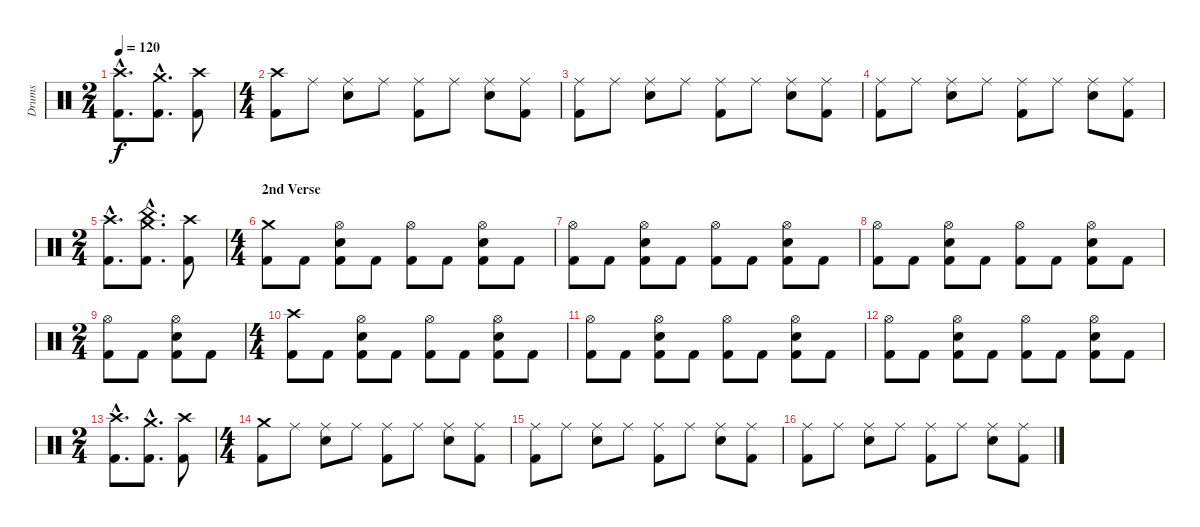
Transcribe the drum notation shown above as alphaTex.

\track ("Drums" "Drums") {instrument percussion}
\staff {score}
\articulation defaults
\ts (2 4)
\tempo 120
\clef neutral
\ks c
("Crash high (hit)"{hac} "Kick (hit) 2"{hac}).8{d dy f} ("Crash medium (hit)"{hac} "Kick (hit) 2"{hac}).8{d} ("Crash high (hit)" "Kick (hit) 2").8 |
\ts (4 4)
("Crash high (hit)" "Kick (hit) 2").8 "Ride (middle)".8 ("Ride (middle)" "Snare (hit) 2").8 "Ride (middle)".8 ("Ride (middle)" "Kick (hit) 2").8 "Ride (middle)".8 ("Ride (middle)" "Snare (hit) 2").8 ("Ride (middle)" "Kick (hit) 2").8 |
("Ride (middle)" "Kick (hit) 2").8 "Ride (middle)".8 ("Ride (middle)" "Snare (hit) 2").8 "Ride (middle)".8 ("Ride (middle)" "Kick (hit) 2").8 "Ride (middle)".8 ("Ride (middle)" "Snare (hit) 2").8 ("Ride (middle)" "Kick (hit) 2").8 |
("Ride (middle)" "Kick (hit) 2").8 "Ride (middle)".8 ("Ride (middle)" "Snare (hit) 2").8 "Ride (middle)".8 ("Ride (middle)" "Kick (hit) 2").8 "Ride (middle)".8 ("Ride (middle)" "Snare (hit) 2").8 ("Ride (middle)" "Kick (hit) 2").8 |
\ts (2 4)
("Crash high (hit)"{hac} "Kick (hit) 2"{hac}).8{d} ("Crash medium (hit)"{hac} "China (hit)"{hac} "Kick (hit) 2"{hac}).8{d} ("Crash high (hit)" "Kick (hit) 2").8 |
\ts (4 4)
\section ("" "2nd Verse")
("Crash medium (hit)" "Kick (hit) 2").8 "Kick (hit) 2".8 ("Hi-Hat (open)" "Snare (hit) 2" "Kick (hit) 2").8 "Kick (hit) 2".8 ("Hi-Hat (open)" "Kick (hit) 2").8 "Kick (hit) 2".8 ("Hi-Hat (open)" "Snare (hit) 2" "Kick (hit) 2").8 "Kick (hit) 2".8 |
("Hi-Hat (open)" "Kick (hit) 2").8 "Kick (hit) 2".8 ("Hi-Hat (open)" "Snare (hit) 2" "Kick (hit) 2").8 "Kick (hit) 2".8 ("Hi-Hat (open)" "Kick (hit) 2").8 "Kick (hit) 2".8 ("Hi-Hat (open)" "Snare (hit) 2" "Kick (hit) 2").8 "Kick (hit) 2".8 |
("Hi-Hat (open)" "Kick (hit) 2").8 "Kick (hit) 2".8 ("Hi-Hat (open)" "Snare (hit) 2" "Kick (hit) 2").8 "Kick (hit) 2".8 ("Hi-Hat (open)" "Kick (hit) 2").8 "Kick (hit) 2".8 ("Hi-Hat (open)" "Snare (hit) 2" "Kick (hit) 2").8 "Kick (hit) 2".8 |
\ts (2 4)
("Hi-Hat (open)" "Kick (hit) 2").8 "Kick (hit) 2".8 ("Hi-Hat (open)" "Snare (hit) 2" "Kick (hit) 2").8 "Kick (hit) 2".8 |
\ts (4 4)
("Crash high (hit)" "Kick (hit) 2").8 "Kick (hit) 2".8 ("Hi-Hat (open)" "Snare (hit) 2" "Kick (hit) 2").8 "Kick (hit) 2".8 ("Hi-Hat (open)" "Kick (hit) 2").8 "Kick (hit) 2".8 ("Hi-Hat (open)" "Snare (hit) 2" "Kick (hit) 2").8 "Kick (hit) 2".8 |
("Hi-Hat (open)" "Kick (hit) 2").8 "Kick (hit) 2".8 ("Hi-Hat (open)" "Snare (hit) 2" "Kick (hit) 2").8 "Kick (hit) 2".8 ("Hi-Hat (open)" "Kick (hit) 2").8 "Kick (hit) 2".8 ("Hi-Hat (open)" "Snare (hit) 2" "Kick (hit) 2").8 "Kick (hit) 2".8 |
("Hi-Hat (open)" "Kick (hit) 2").8 "Kick (hit) 2".8 ("Hi-Hat (open)" "Snare (hit) 2" "Kick (hit) 2").8 "Kick (hit) 2".8 ("Hi-Hat (open)" "Kick (hit) 2").8 "Kick (hit) 2".8 ("Hi-Hat (open)" "Snare (hit) 2" "Kick (hit) 2").8 "Kick (hit) 2".8 |
\ts (2 4)
("Crash high (hit)"{hac} "Kick (hit) 2"{hac}).8{d} ("Crash medium (hit)"{hac} "Kick (hit) 2"{hac}).8{d} ("Crash high (hit)" "Kick (hit) 2").8 |
\ts (4 4)
("Crash medium (hit)" "Kick (hit) 2").8 "Ride (middle)".8 ("Ride (middle)" "Snare (hit) 2").8 "Ride (middle)".8 ("Ride (middle)" "Kick (hit) 2").8 "Ride (middle)".8 ("Ride (middle)" "Snare (hit) 2").8 ("Ride (middle)" "Kick (hit) 2").8 |
("Ride (middle)" "Kick (hit) 2").8 "Ride (middle)".8 ("Ride (middle)" "Snare (hit) 2").8 "Ride (middle)".8 ("Ride (middle)" "Kick (hit) 2").8 "Ride (middle)".8 ("Ride (middle)" "Snare (hit) 2").8 ("Ride (middle)" "Kick (hit) 2").8 |
("Ride (middle)" "Kick (hit) 2").8 "Ride (middle)".8 ("Ride (middle)" "Snare (hit) 2").8 "Ride (middle)".8 ("Ride (middle)" "Kick (hit) 2").8 "Ride (middle)".8 ("Ride (middle)" "Snare (hit) 2").8 ("Ride (middle)" "Kick (hit) 2").8
